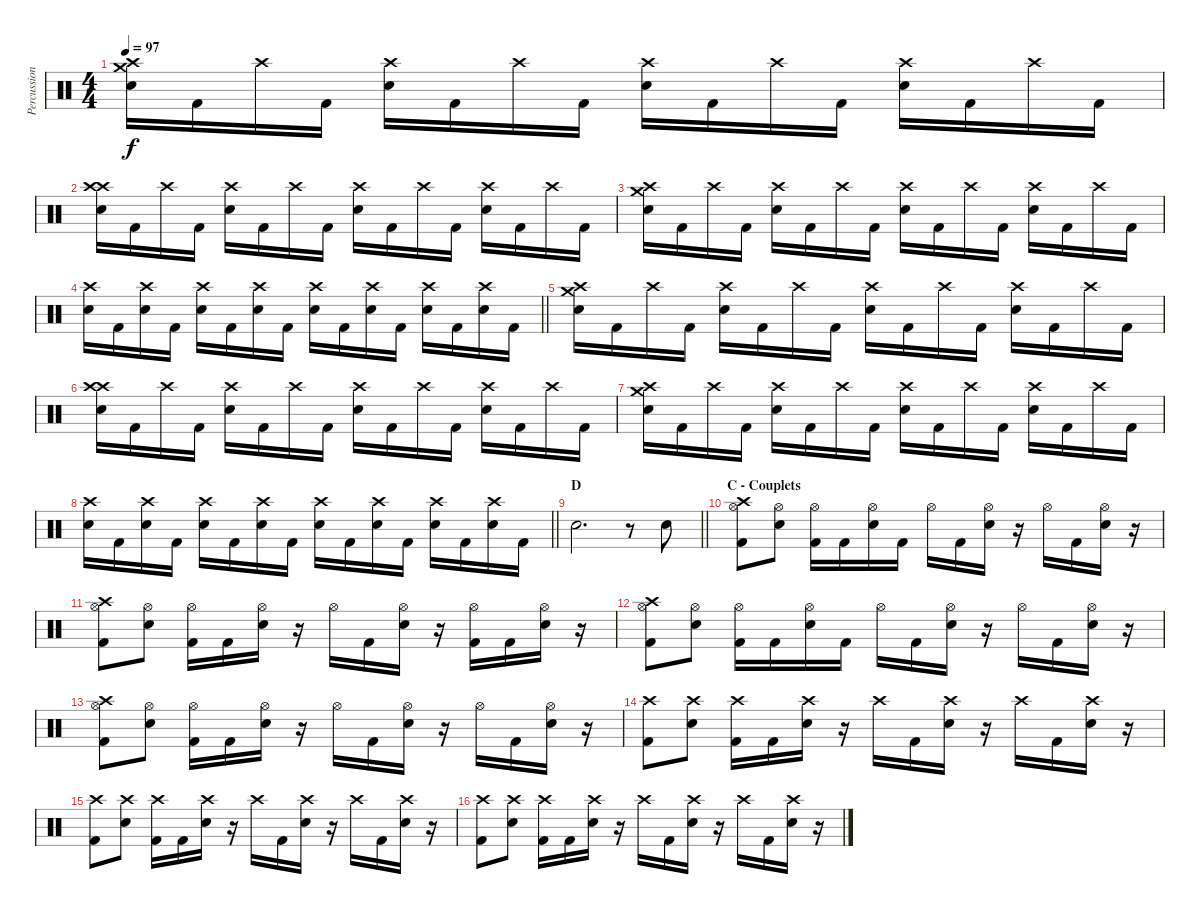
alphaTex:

\track ("Percussions" "Percussion") {instrument percussion}
\staff {score}
\articulation defaults
\ts (4 4)
\tempo 97
\clef neutral
\ks c
("Crash high (hit)" "Crash medium (hit)" "Snare (hit) 2").16{dy f} "Kick (hit) 2".16 "Crash high (hit)".16 "Kick (hit) 2".16 ("Crash high (hit)" "Snare (hit) 2").16 "Kick (hit) 2".16 "Crash high (hit)".16 "Kick (hit) 2".16 ("Crash high (hit)" "Snare (hit) 2").16 "Kick (hit) 2".16 "Crash high (hit)".16 "Kick (hit) 2".16 ("Crash high (hit)" "Snare (hit) 2").16 "Kick (hit) 2".16 "Crash high (hit)".16 "Kick (hit) 2".16 |
("Crash high (hit)" "Crash high (hit)" "Snare (hit) 2").16 "Kick (hit) 2".16 "Crash high (hit)".16 "Kick (hit) 2".16 ("Crash high (hit)" "Snare (hit) 2").16 "Kick (hit) 2".16 "Crash high (hit)".16 "Kick (hit) 2".16 ("Crash high (hit)" "Snare (hit) 2").16 "Kick (hit) 2".16 "Crash high (hit)".16 "Kick (hit) 2".16 ("Crash high (hit)" "Snare (hit) 2").16 "Kick (hit) 2".16 "Crash high (hit)".16 "Kick (hit) 2".16 |
("Crash high (hit)" "Crash medium (hit)" "Snare (hit) 2").16 "Kick (hit) 2".16 "Crash high (hit)".16 "Kick (hit) 2".16 ("Crash high (hit)" "Snare (hit) 2").16 "Kick (hit) 2".16 "Crash high (hit)".16 "Kick (hit) 2".16 ("Crash high (hit)" "Snare (hit) 2").16 "Kick (hit) 2".16 "Crash high (hit)".16 "Kick (hit) 2".16 ("Crash high (hit)" "Snare (hit) 2").16 "Kick (hit) 2".16 "Crash high (hit)".16 "Kick (hit) 2".16 |
\barLineRight lightlight
("Crash high (hit)" "Snare (hit) 2").16 "Kick (hit) 2".16 ("Crash high (hit)" "Snare (hit) 2").16 "Kick (hit) 2".16 ("Crash high (hit)" "Snare (hit) 2").16 "Kick (hit) 2".16 ("Crash high (hit)" "Snare (hit) 2").16 "Kick (hit) 2".16 ("Crash high (hit)" "Snare (hit) 2").16 "Kick (hit) 2".16 ("Crash high (hit)" "Snare (hit) 2").16 "Kick (hit) 2".16 ("Crash high (hit)" "Snare (hit) 2").16 "Kick (hit) 2".16 ("Crash high (hit)" "Snare (hit) 2").16 "Kick (hit) 2".16 |
("Crash high (hit)" "Crash medium (hit)" "Snare (hit) 2").16 "Kick (hit) 2".16 "Crash high (hit)".16 "Kick (hit) 2".16 ("Crash high (hit)" "Snare (hit) 2").16 "Kick (hit) 2".16 "Crash high (hit)".16 "Kick (hit) 2".16 ("Crash high (hit)" "Snare (hit) 2").16 "Kick (hit) 2".16 "Crash high (hit)".16 "Kick (hit) 2".16 ("Crash high (hit)" "Snare (hit) 2").16 "Kick (hit) 2".16 "Crash high (hit)".16 "Kick (hit) 2".16 |
("Crash high (hit)" "Crash high (hit)" "Snare (hit) 2").16 "Kick (hit) 2".16 "Crash high (hit)".16 "Kick (hit) 2".16 ("Crash high (hit)" "Snare (hit) 2").16 "Kick (hit) 2".16 "Crash high (hit)".16 "Kick (hit) 2".16 ("Crash high (hit)" "Snare (hit) 2").16 "Kick (hit) 2".16 "Crash high (hit)".16 "Kick (hit) 2".16 ("Crash high (hit)" "Snare (hit) 2").16 "Kick (hit) 2".16 "Crash high (hit)".16 "Kick (hit) 2".16 |
("Crash high (hit)" "Crash medium (hit)" "Snare (hit) 2").16 "Kick (hit) 2".16 "Crash high (hit)".16 "Kick (hit) 2".16 ("Crash high (hit)" "Snare (hit) 2").16 "Kick (hit) 2".16 "Crash high (hit)".16 "Kick (hit) 2".16 ("Crash high (hit)" "Snare (hit) 2").16 "Kick (hit) 2".16 "Crash high (hit)".16 "Kick (hit) 2".16 ("Crash high (hit)" "Snare (hit) 2").16 "Kick (hit) 2".16 "Crash high (hit)".16 "Kick (hit) 2".16 |
\barLineRight lightlight
("Crash high (hit)" "Snare (hit) 2").16 "Kick (hit) 2".16 ("Crash high (hit)" "Snare (hit) 2").16 "Kick (hit) 2".16 ("Crash high (hit)" "Snare (hit) 2").16 "Kick (hit) 2".16 ("Crash high (hit)" "Snare (hit) 2").16 "Kick (hit) 2".16 ("Crash high (hit)" "Snare (hit) 2").16 "Kick (hit) 2".16 ("Crash high (hit)" "Snare (hit) 2").16 "Kick (hit) 2".16 ("Crash high (hit)" "Snare (hit) 2").16 "Kick (hit) 2".16 ("Crash high (hit)" "Snare (hit) 2").16 "Kick (hit) 2".16 |
\section ("" "D")
\barLineRight lightlight "Snare (hit) 2".2{d}
r.8 "Snare (hit) 2".8 |
\section ("" "C - Couplets")
("Crash high (hit)" "Hi-Hat (open)" "Kick (hit) 2").8 ("Hi-Hat (open)" "Snare (hit) 2").8 ("Hi-Hat (open)" "Kick (hit) 2").16 "Kick (hit) 2".16 ("Hi-Hat (open)" "Snare (hit) 2").16 "Kick (hit) 2".16 "Hi-Hat (open)".16 "Kick (hit) 2".16 ("Hi-Hat (open)" "Snare (hit) 2").16 r.16 "Hi-Hat (open)".16 "Kick (hit) 2".16 ("Hi-Hat (open)" "Snare (hit) 2").16 r.16 |
("Crash high (hit)" "Hi-Hat (open)" "Kick (hit) 2").8 ("Hi-Hat (open)" "Snare (hit) 2").8 ("Hi-Hat (open)" "Kick (hit) 2").16 "Kick (hit) 2".16 ("Hi-Hat (open)" "Snare (hit) 2").16 r.16 "Hi-Hat (open)".16 "Kick (hit) 2".16 ("Hi-Hat (open)" "Snare (hit) 2").16 r.16 ("Hi-Hat (open)" "Kick (hit) 2").16 "Kick (hit) 2".16 ("Hi-Hat (open)" "Snare (hit) 2").16 r.16 |
("Crash high (hit)" "Hi-Hat (open)" "Kick (hit) 2").8 ("Hi-Hat (open)" "Snare (hit) 2").8 ("Hi-Hat (open)" "Kick (hit) 2").16 "Kick (hit) 2".16 ("Hi-Hat (open)" "Snare (hit) 2").16 "Kick (hit) 2".16 "Hi-Hat (open)".16 "Kick (hit) 2".16 ("Hi-Hat (open)" "Snare (hit) 2").16 r.16 "Hi-Hat (open)".16 "Kick (hit) 2".16 ("Hi-Hat (open)" "Snare (hit) 2").16 r.16 |
("Crash high (hit)" "Hi-Hat (open)" "Kick (hit) 2").8 ("Hi-Hat (open)" "Snare (hit) 2").8 ("Hi-Hat (open)" "Kick (hit) 2").16 "Kick (hit) 2".16 ("Hi-Hat (open)" "Snare (hit) 2").16 r.16 "Hi-Hat (open)".16 "Kick (hit) 2".16 ("Hi-Hat (open)" "Snare (hit) 2").16 r.16 "Hi-Hat (open)".16 "Kick (hit) 2".16 ("Hi-Hat (open)" "Snare (hit) 2").16 r.16 |
("Crash high (hit)" "Kick (hit) 2").8 ("Crash high (hit)" "Snare (hit) 2").8 ("Crash high (hit)" "Kick (hit) 2").16 "Kick (hit) 2".16 ("Crash high (hit)" "Snare (hit) 2").16 r.16 "Crash high (hit)".16 "Kick (hit) 2".16 ("Crash high (hit)" "Snare (hit) 2").16 r.16 "Crash high (hit)".16 "Kick (hit) 2".16 ("Crash high (hit)" "Snare (hit) 2").16 r.16 |
("Crash high (hit)" "Kick (hit) 2").8 ("Crash high (hit)" "Snare (hit) 2").8 ("Crash high (hit)" "Kick (hit) 2").16 "Kick (hit) 2".16 ("Crash high (hit)" "Snare (hit) 2").16 r.16 "Crash high (hit)".16 "Kick (hit) 2".16 ("Crash high (hit)" "Snare (hit) 2").16 r.16 "Crash high (hit)".16 "Kick (hit) 2".16 ("Crash high (hit)" "Snare (hit) 2").16 r.16 |
("Crash high (hit)" "Kick (hit) 2").8 ("Crash high (hit)" "Snare (hit) 2").8 ("Crash high (hit)" "Kick (hit) 2").16 "Kick (hit) 2".16 ("Crash high (hit)" "Snare (hit) 2").16 r.16 "Crash high (hit)".16 "Kick (hit) 2".16 ("Crash high (hit)" "Snare (hit) 2").16 r.16 "Crash high (hit)".16 "Kick (hit) 2".16 ("Crash high (hit)" "Snare (hit) 2").16 r.16
